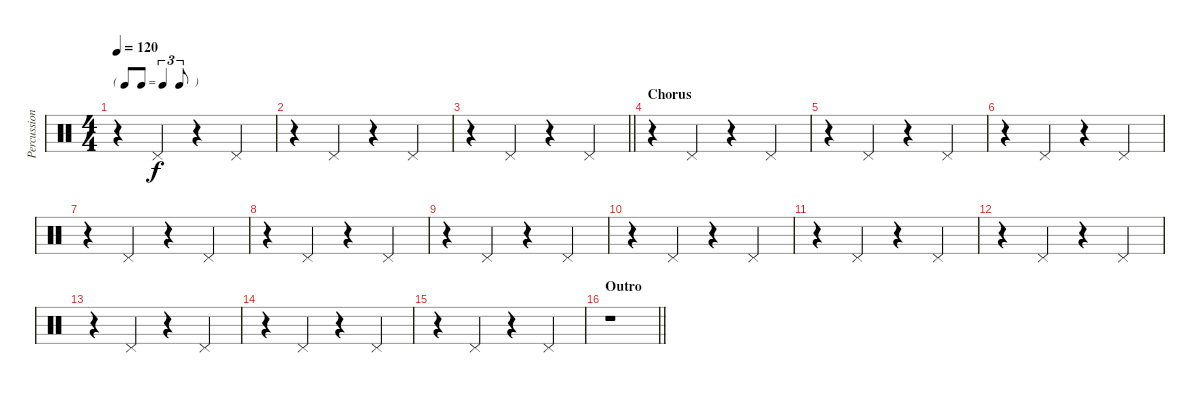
\track ("Percussion" "Percussion") {instrument percussion}
\staff {score}
\articulation defaults
\ts (4 4)
\tf triplet8th
\tempo 120
\clef neutral
\ks c
r.4{dy f} "Pedal Hi-Hat (hit)".4 r.4 "Pedal Hi-Hat (hit)".4 |
r.4 "Pedal Hi-Hat (hit)".4 r.4 "Pedal Hi-Hat (hit)".4 |
\barLineRight lightlight
r.4 "Pedal Hi-Hat (hit)".4 r.4 "Pedal Hi-Hat (hit)".4 |
\section ("" "Chorus")
r.4 "Pedal Hi-Hat (hit)".4 r.4 "Pedal Hi-Hat (hit)".4 |
r.4 "Pedal Hi-Hat (hit)".4 r.4 "Pedal Hi-Hat (hit)".4 |
r.4 "Pedal Hi-Hat (hit)".4 r.4 "Pedal Hi-Hat (hit)".4 |
r.4 "Pedal Hi-Hat (hit)".4 r.4 "Pedal Hi-Hat (hit)".4 |
r.4 "Pedal Hi-Hat (hit)".4 r.4 "Pedal Hi-Hat (hit)".4 |
r.4 "Pedal Hi-Hat (hit)".4 r.4 "Pedal Hi-Hat (hit)".4 |
r.4 "Pedal Hi-Hat (hit)".4 r.4 "Pedal Hi-Hat (hit)".4 |
r.4 "Pedal Hi-Hat (hit)".4 r.4 "Pedal Hi-Hat (hit)".4 |
r.4 "Pedal Hi-Hat (hit)".4 r.4 "Pedal Hi-Hat (hit)".4 |
r.4 "Pedal Hi-Hat (hit)".4 r.4 "Pedal Hi-Hat (hit)".4 |
r.4 "Pedal Hi-Hat (hit)".4 r.4 "Pedal Hi-Hat (hit)".4 |
r.4 "Pedal Hi-Hat (hit)".4 r.4 "Pedal Hi-Hat (hit)".4 |
\section ("" "Outro")
\barLineRight lightlight
r.1
